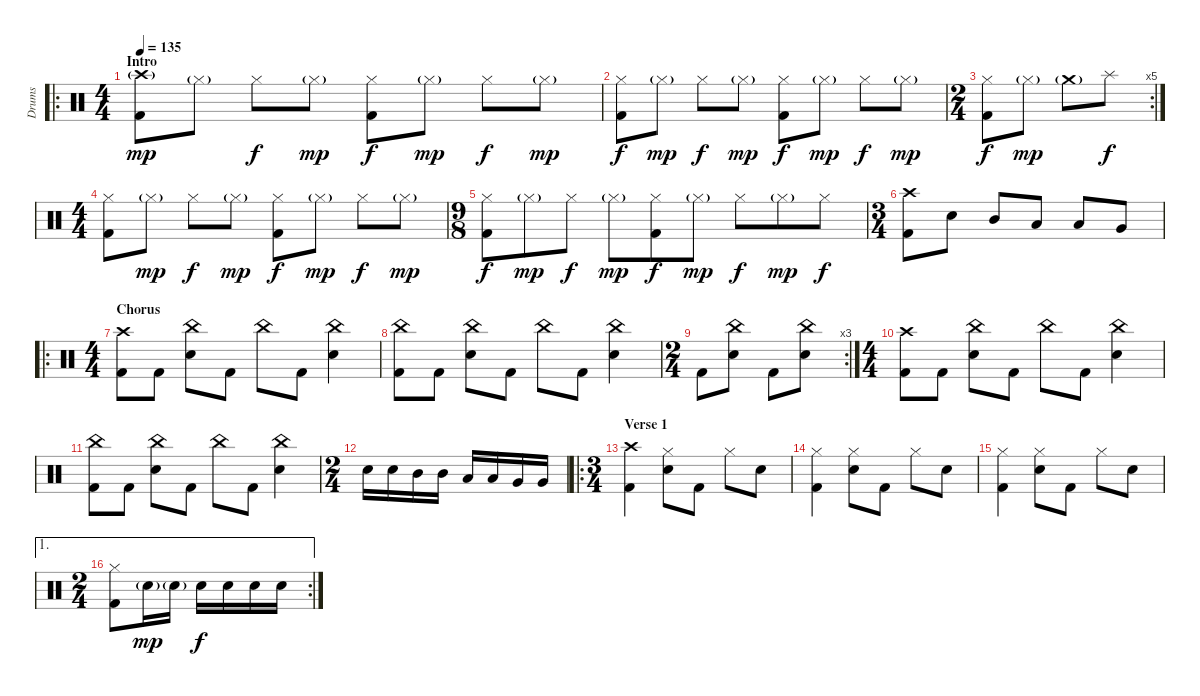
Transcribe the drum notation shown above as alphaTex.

\track ("Drums" "Drums") {instrument percussion}
\staff {score}
\articulation defaults
\ro
\ts (4 4)
\section ("" "Intro")
\tempo 135
\clef neutral
\ks c
("Crash high (hit)"{g} "Kick (hit) 2").8{dy mp} "Hi-Hat (closed)"{g}.8 "Hi-Hat (closed)".8{dy f} "Hi-Hat (closed)"{g}.8{dy mp} ("Hi-Hat (closed)" "Kick (hit) 2").8{dy f} "Hi-Hat (closed)"{g}.8{dy mp} "Hi-Hat (closed)".8{dy f} "Hi-Hat (closed)"{g}.8{dy mp} |
("Hi-Hat (closed)" "Kick (hit) 2").8{dy f} "Hi-Hat (closed)"{g}.8{dy mp} "Hi-Hat (closed)".8{dy f} "Hi-Hat (closed)"{g}.8{dy mp} ("Hi-Hat (closed)" "Kick (hit) 2").8{dy f} "Hi-Hat (closed)"{g}.8{dy mp} "Hi-Hat (closed)".8{dy f} "Hi-Hat (closed)"{g}.8{dy mp} |
\rc 5
\ts (2 4)
("Hi-Hat (closed)" "Kick (hit) 2").8{dy f} "Hi-Hat (closed)"{g}.8{dy mp} "Crash medium (hit)"{g}.8 "Splash (hit)".8{dy f} |
\ts (4 4)
("Hi-Hat (closed)" "Kick (hit) 2").8 "Hi-Hat (closed)"{g}.8{dy mp} "Hi-Hat (closed)".8{dy f} "Hi-Hat (closed)"{g}.8{dy mp} ("Hi-Hat (closed)" "Kick (hit) 2").8{dy f} "Hi-Hat (closed)"{g}.8{dy mp} "Hi-Hat (closed)".8{dy f} "Hi-Hat (closed)"{g}.8{dy mp} |
\ts (9 8)
("Hi-Hat (closed)" "Kick (hit) 2").8{dy f} "Hi-Hat (closed)"{g}.8{dy mp} "Hi-Hat (closed)".8{dy f} "Hi-Hat (closed)"{g}.8{dy mp} ("Hi-Hat (closed)" "Kick (hit) 2").8{dy f} "Hi-Hat (closed)"{g}.8{dy mp} "Hi-Hat (closed)".8{dy f} "Hi-Hat (closed)"{g}.8{dy mp} "Hi-Hat (closed)".8{dy f} |
\ts (3 4)
("Crash high (hit)" "Kick (hit) 2").8 "Electric Snare (hit)".8 "Mid Tom (hit)".8 "Low Tom (hit)".8 "Low Tom (hit)".8 "Very Low Tom (hit)".8 |
\ro
\ts (4 4)
\section ("" "Chorus")
("Crash high (hit)" "Kick (hit) 2").8 "Kick (hit) 2".8 ("China (hit)" "Electric Snare (hit)").8 "Kick (hit) 2".8 "China (hit)".8 "Kick (hit) 2".8 ("China (hit)" "Electric Snare (hit)").4 |
("China (hit)" "Kick (hit) 2").8 "Kick (hit) 2".8 ("China (hit)" "Electric Snare (hit)").8 "Kick (hit) 2".8 "China (hit)".8 "Kick (hit) 2".8 ("China (hit)" "Electric Snare (hit)").4 |
\rc 3
\ts (2 4)
"Kick (hit) 2".8 ("China (hit)" "Electric Snare (hit)").8 "Kick (hit) 2".8 ("China (hit)" "Electric Snare (hit)").8 |
\ts (4 4)
("Crash high (hit)" "Kick (hit) 2").8 "Kick (hit) 2".8 ("China (hit)" "Electric Snare (hit)").8 "Kick (hit) 2".8 "China (hit)".8 "Kick (hit) 2".8 ("China (hit)" "Electric Snare (hit)").4 |
("China (hit)" "Kick (hit) 2").8 "Kick (hit) 2".8 ("China (hit)" "Electric Snare (hit)").8 "Kick (hit) 2".8 "China (hit)".8 "Kick (hit) 2".8 ("China (hit)" "Electric Snare (hit)").4 |
\ts (2 4)
"Electric Snare (hit)".16 "Electric Snare (hit)".16 "Mid Tom (hit)".16 "Mid Tom (hit)".16 "Low Tom (hit)".16 "Low Tom (hit)".16 "Very Low Tom (hit)".16 "Very Low Tom (hit)".16 |
\ro
\ts (3 4)
\section ("" "Verse 1")
("Crash high (hit)" "Kick (hit) 2").4 ("Hi-Hat (closed)" "Electric Snare (hit)").8 "Kick (hit) 2".8 "Hi-Hat (closed)".8 "Electric Snare (hit)".8 |
("Hi-Hat (closed)" "Kick (hit) 2").4 ("Hi-Hat (closed)" "Electric Snare (hit)").8 "Kick (hit) 2".8 "Hi-Hat (closed)".8 "Electric Snare (hit)".8 |
("Hi-Hat (closed)" "Kick (hit) 2").4 ("Hi-Hat (closed)" "Electric Snare (hit)").8 "Kick (hit) 2".8 "Hi-Hat (closed)".8 "Electric Snare (hit)".8 |
\ae 1
\rc 2
\ts (2 4)
("Hi-Hat (closed)" "Kick (hit) 2").8 "Electric Snare (hit)"{g}.16{dy mp} "Electric Snare (hit)"{g}.16 "Electric Snare (hit)".16{dy f} "Electric Snare (hit)".16 "Electric Snare (hit)".16 "Electric Snare (hit)".16
